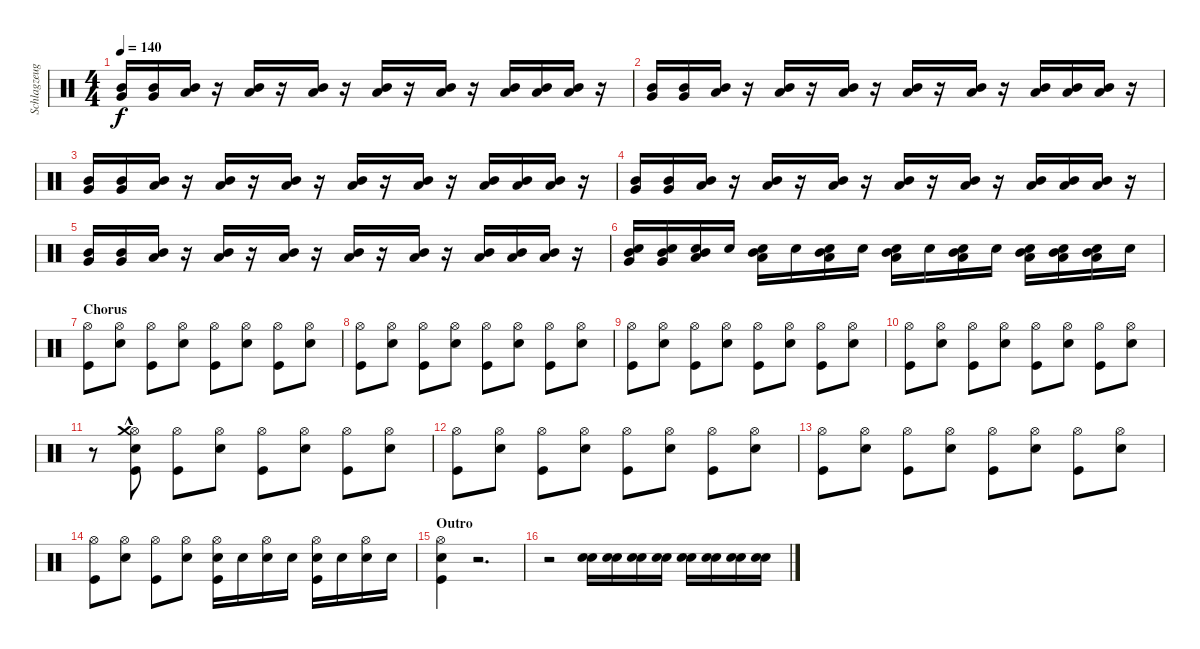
\track ("Schlagzeug - Bela B." "Schlagzeug") {instrument percussion}
\staff {score}
\articulation defaults
\ts (4 4)
\tempo 140
\clef neutral
\ks c
("Very Low Tom (hit)" "Mid Tom (hit)").16{dy f} ("Very Low Tom (hit)" "Mid Tom (hit)").16 ("Low Tom (hit)" "Mid Tom (hit)").16 r.16 ("Low Tom (hit)" "Mid Tom (hit)").16 r.16 ("Low Tom (hit)" "Mid Tom (hit)").16 r.16 ("Low Tom (hit)" "Mid Tom (hit)").16 r.16 ("Low Tom (hit)" "Mid Tom (hit)").16 r.16 ("Low Tom (hit)" "Mid Tom (hit)").16 ("Low Tom (hit)" "Mid Tom (hit)").16 ("Low Tom (hit)" "Mid Tom (hit)").16 r.16 |
("Very Low Tom (hit)" "Mid Tom (hit)").16 ("Very Low Tom (hit)" "Mid Tom (hit)").16 ("Low Tom (hit)" "Mid Tom (hit)").16 r.16 ("Low Tom (hit)" "Mid Tom (hit)").16 r.16 ("Low Tom (hit)" "Mid Tom (hit)").16 r.16 ("Low Tom (hit)" "Mid Tom (hit)").16 r.16 ("Low Tom (hit)" "Mid Tom (hit)").16 r.16 ("Low Tom (hit)" "Mid Tom (hit)").16 ("Low Tom (hit)" "Mid Tom (hit)").16 ("Low Tom (hit)" "Mid Tom (hit)").16 r.16 |
("Very Low Tom (hit)" "Mid Tom (hit)").16 ("Very Low Tom (hit)" "Mid Tom (hit)").16 ("Low Tom (hit)" "Mid Tom (hit)").16 r.16 ("Low Tom (hit)" "Mid Tom (hit)").16 r.16 ("Low Tom (hit)" "Mid Tom (hit)").16 r.16 ("Low Tom (hit)" "Mid Tom (hit)").16 r.16 ("Low Tom (hit)" "Mid Tom (hit)").16 r.16 ("Low Tom (hit)" "Mid Tom (hit)").16 ("Low Tom (hit)" "Mid Tom (hit)").16 ("Low Tom (hit)" "Mid Tom (hit)").16 r.16 |
("Very Low Tom (hit)" "Mid Tom (hit)").16 ("Very Low Tom (hit)" "Mid Tom (hit)").16 ("Low Tom (hit)" "Mid Tom (hit)").16 r.16 ("Low Tom (hit)" "Mid Tom (hit)").16 r.16 ("Low Tom (hit)" "Mid Tom (hit)").16 r.16 ("Low Tom (hit)" "Mid Tom (hit)").16 r.16 ("Low Tom (hit)" "Mid Tom (hit)").16 r.16 ("Low Tom (hit)" "Mid Tom (hit)").16 ("Low Tom (hit)" "Mid Tom (hit)").16 ("Low Tom (hit)" "Mid Tom (hit)").16 r.16 |
("Very Low Tom (hit)" "Mid Tom (hit)").16 ("Very Low Tom (hit)" "Mid Tom (hit)").16 ("Low Tom (hit)" "Mid Tom (hit)").16 r.16 ("Low Tom (hit)" "Mid Tom (hit)").16 r.16 ("Low Tom (hit)" "Mid Tom (hit)").16 r.16 ("Low Tom (hit)" "Mid Tom (hit)").16 r.16 ("Low Tom (hit)" "Mid Tom (hit)").16 r.16 ("Low Tom (hit)" "Mid Tom (hit)").16 ("Low Tom (hit)" "Mid Tom (hit)").16 ("Low Tom (hit)" "Mid Tom (hit)").16 r.16 |
("Very Low Tom (hit)" "Mid Tom (hit)" "Electric Snare (hit)").16 ("Very Low Tom (hit)" "Mid Tom (hit)" "Electric Snare (hit)").16 ("Low Tom (hit)" "Mid Tom (hit)" "Electric Snare (hit)").16 "Electric Snare (hit)".16 ("Low Tom (hit)" "Mid Tom (hit)" "Electric Snare (hit)").16 "Electric Snare (hit)".16 ("Low Tom (hit)" "Mid Tom (hit)" "Electric Snare (hit)").16 "Electric Snare (hit)".16 ("Low Tom (hit)" "Mid Tom (hit)" "Electric Snare (hit)").16 "Electric Snare (hit)".16 ("Low Tom (hit)" "Mid Tom (hit)" "Electric Snare (hit)").16 "Electric Snare (hit)".16 ("Low Tom (hit)" "Mid Tom (hit)" "Electric Snare (hit)").16 ("Low Tom (hit)" "Mid Tom (hit)" "Electric Snare (hit)").16 ("Low Tom (hit)" "Mid Tom (hit)" "Electric Snare (hit)").16 "Electric Snare (hit)".16 |
\section ("" "Chorus")
("Kick (hit)" "Hi-Hat (open)").8 ("Hi-Hat (open)" "Electric Snare (hit)").8 ("Hi-Hat (open)" "Kick (hit)").8 ("Hi-Hat (open)" "Electric Snare (hit)").8 ("Kick (hit)" "Hi-Hat (open)").8 ("Hi-Hat (open)" "Electric Snare (hit)").8 ("Hi-Hat (open)" "Kick (hit)").8 ("Hi-Hat (open)" "Electric Snare (hit)").8 |
("Kick (hit)" "Hi-Hat (open)").8 ("Hi-Hat (open)" "Electric Snare (hit)").8 ("Hi-Hat (open)" "Kick (hit)").8 ("Hi-Hat (open)" "Electric Snare (hit)").8 ("Kick (hit)" "Hi-Hat (open)").8 ("Hi-Hat (open)" "Electric Snare (hit)").8 ("Hi-Hat (open)" "Kick (hit)").8 ("Hi-Hat (open)" "Electric Snare (hit)").8 |
("Kick (hit)" "Hi-Hat (open)").8 ("Hi-Hat (open)" "Electric Snare (hit)").8 ("Hi-Hat (open)" "Kick (hit)").8 ("Hi-Hat (open)" "Electric Snare (hit)").8 ("Kick (hit)" "Hi-Hat (open)").8 ("Hi-Hat (open)" "Electric Snare (hit)").8 ("Hi-Hat (open)" "Kick (hit)").8 ("Hi-Hat (open)" "Electric Snare (hit)").8 |
("Kick (hit)" "Hi-Hat (open)").8 ("Hi-Hat (open)" "Electric Snare (hit)").8 ("Hi-Hat (open)" "Kick (hit)").8 ("Hi-Hat (open)" "Electric Snare (hit)").8 ("Kick (hit)" "Hi-Hat (open)").8 ("Hi-Hat (open)" "Electric Snare (hit)").8 ("Hi-Hat (open)" "Kick (hit)").8 ("Hi-Hat (open)" "Electric Snare (hit)").8 |
r.8 ("Hi-Hat (open)" "Electric Snare (hit)" "Crash medium (hit)"{hac} "Kick (hit)").8 ("Hi-Hat (open)" "Kick (hit)").8 ("Hi-Hat (open)" "Electric Snare (hit)").8 ("Kick (hit)" "Hi-Hat (open)").8 ("Hi-Hat (open)" "Electric Snare (hit)").8 ("Hi-Hat (open)" "Kick (hit)").8 ("Hi-Hat (open)" "Electric Snare (hit)").8 |
("Kick (hit)" "Hi-Hat (open)").8 ("Hi-Hat (open)" "Electric Snare (hit)").8 ("Hi-Hat (open)" "Kick (hit)").8 ("Hi-Hat (open)" "Electric Snare (hit)").8 ("Kick (hit)" "Hi-Hat (open)").8 ("Hi-Hat (open)" "Electric Snare (hit)").8 ("Hi-Hat (open)" "Kick (hit)").8 ("Hi-Hat (open)" "Electric Snare (hit)").8 |
("Kick (hit)" "Hi-Hat (open)").8 ("Hi-Hat (open)" "Electric Snare (hit)").8 ("Hi-Hat (open)" "Kick (hit)").8 ("Hi-Hat (open)" "Electric Snare (hit)").8 ("Kick (hit)" "Hi-Hat (open)").8 ("Hi-Hat (open)" "Electric Snare (hit)").8 ("Hi-Hat (open)" "Kick (hit)").8 ("Hi-Hat (open)" "Electric Snare (hit)").8 |
("Kick (hit)" "Hi-Hat (open)").8 ("Hi-Hat (open)" "Electric Snare (hit)").8 ("Hi-Hat (open)" "Kick (hit)").8 ("Hi-Hat (open)" "Electric Snare (hit)").8 ("Kick (hit)" "Hi-Hat (open)" "Electric Snare (hit)").16 "Electric Snare (hit)".16 ("Hi-Hat (open)" "Electric Snare (hit)").16 "Electric Snare (hit)".16 ("Hi-Hat (open)" "Kick (hit)" "Electric Snare (hit)").16 "Electric Snare (hit)".16 ("Hi-Hat (open)" "Electric Snare (hit)").16 "Electric Snare (hit)".16 |
\section ("" "Outro")
("Kick (hit)" "Hi-Hat (open)" "Electric Snare (hit)").4 r.2{d} |
r.2 ("Electric Snare (hit)" "Snare (hit) 2").16 ("Electric Snare (hit)" "Snare (hit) 2").16 ("Electric Snare (hit)" "Snare (hit) 2").16 ("Electric Snare (hit)" "Snare (hit) 2").16 ("Electric Snare (hit)" "Snare (hit) 2").16 ("Electric Snare (hit)" "Snare (hit) 2").16 ("Electric Snare (hit)" "Snare (hit) 2").16 ("Electric Snare (hit)" "Snare (hit) 2").16
